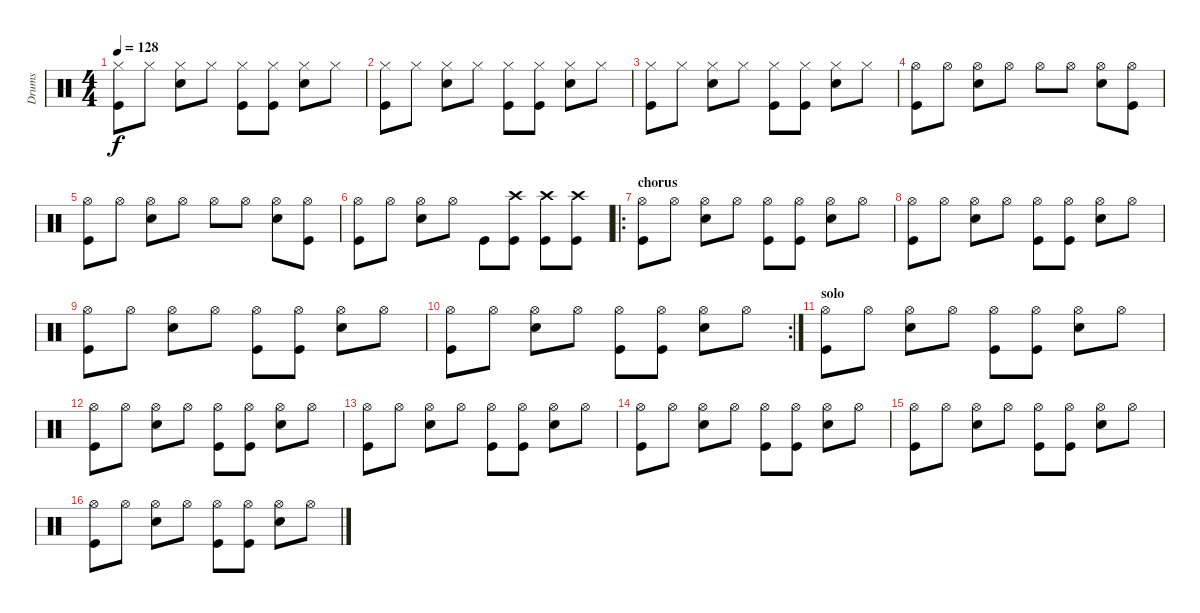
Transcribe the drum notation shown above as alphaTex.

\track ("Drums" "Drums") {instrument percussion}
\staff {score}
\articulation defaults
\ts (4 4)
\tempo 128
\clef neutral
\ks c
("Hi-Hat (closed)" "Kick (hit)").8{dy f} "Hi-Hat (closed)".8 ("Hi-Hat (closed)" "Electric Snare (hit)").8 "Hi-Hat (closed)".8 ("Hi-Hat (closed)" "Kick (hit)").8 ("Hi-Hat (closed)" "Kick (hit)").8 ("Hi-Hat (closed)" "Electric Snare (hit)").8 "Hi-Hat (closed)".8 |
("Hi-Hat (closed)" "Kick (hit)").8 "Hi-Hat (closed)".8 ("Hi-Hat (closed)" "Electric Snare (hit)").8 "Hi-Hat (closed)".8 ("Hi-Hat (closed)" "Kick (hit)").8 ("Hi-Hat (closed)" "Kick (hit)").8 ("Hi-Hat (closed)" "Electric Snare (hit)").8 "Hi-Hat (closed)".8 |
("Hi-Hat (closed)" "Kick (hit)").8 "Hi-Hat (closed)".8 ("Hi-Hat (closed)" "Electric Snare (hit)").8 "Hi-Hat (closed)".8 ("Hi-Hat (closed)" "Kick (hit)").8 ("Hi-Hat (closed)" "Kick (hit)").8 ("Hi-Hat (closed)" "Electric Snare (hit)").8 "Hi-Hat (closed)".8 |
("Hi-Hat (open)" "Kick (hit)").8 "Hi-Hat (open)".8 ("Hi-Hat (open)" "Electric Snare (hit)").8 "Hi-Hat (open)".8 "Hi-Hat (open)".8 "Hi-Hat (open)".8 ("Hi-Hat (open)" "Electric Snare (hit)").8 ("Hi-Hat (open)" "Kick (hit)").8 |
("Hi-Hat (open)" "Kick (hit)").8 "Hi-Hat (open)".8 ("Hi-Hat (open)" "Electric Snare (hit)").8 "Hi-Hat (open)".8 "Hi-Hat (open)".8 "Hi-Hat (open)".8 ("Hi-Hat (open)" "Electric Snare (hit)").8 ("Hi-Hat (open)" "Kick (hit)").8 |
("Hi-Hat (open)" "Kick (hit)").8 "Hi-Hat (open)".8 ("Hi-Hat (open)" "Electric Snare (hit)").8 "Hi-Hat (open)".8 "Kick (hit)".8 ("Crash high (hit)" "Kick (hit)").8 ("Crash high (hit)" "Kick (hit)").8 ("Crash high (hit)" "Kick (hit)").8 |
\ro
\section ("" "chorus")
("Hi-Hat (open)" "Kick (hit)").8 "Hi-Hat (open)".8 ("Hi-Hat (open)" "Electric Snare (hit)").8 "Hi-Hat (open)".8 ("Hi-Hat (open)" "Kick (hit)").8 ("Hi-Hat (open)" "Kick (hit)").8 ("Hi-Hat (open)" "Electric Snare (hit)").8 "Hi-Hat (open)".8 |
("Hi-Hat (open)" "Kick (hit)").8 "Hi-Hat (open)".8 ("Hi-Hat (open)" "Electric Snare (hit)").8 "Hi-Hat (open)".8 ("Hi-Hat (open)" "Kick (hit)").8 ("Hi-Hat (open)" "Kick (hit)").8 ("Hi-Hat (open)" "Electric Snare (hit)").8 "Hi-Hat (open)".8 |
("Hi-Hat (open)" "Kick (hit)").8 "Hi-Hat (open)".8 ("Hi-Hat (open)" "Electric Snare (hit)").8 "Hi-Hat (open)".8 ("Hi-Hat (open)" "Kick (hit)").8 ("Hi-Hat (open)" "Kick (hit)").8 ("Hi-Hat (open)" "Electric Snare (hit)").8 "Hi-Hat (open)".8 |
\rc 2
("Hi-Hat (open)" "Kick (hit)").8 "Hi-Hat (open)".8 ("Hi-Hat (open)" "Electric Snare (hit)").8 "Hi-Hat (open)".8 ("Hi-Hat (open)" "Kick (hit)").8 ("Hi-Hat (open)" "Kick (hit)").8 ("Hi-Hat (open)" "Electric Snare (hit)").8 "Hi-Hat (open)".8 |
\section ("" "solo")
("Hi-Hat (open)" "Kick (hit)").8 "Hi-Hat (open)".8 ("Hi-Hat (open)" "Electric Snare (hit)").8 "Hi-Hat (open)".8 ("Hi-Hat (open)" "Kick (hit)").8 ("Hi-Hat (open)" "Kick (hit)").8 ("Hi-Hat (open)" "Electric Snare (hit)").8 "Hi-Hat (open)".8 |
("Hi-Hat (open)" "Kick (hit)").8 "Hi-Hat (open)".8 ("Hi-Hat (open)" "Electric Snare (hit)").8 "Hi-Hat (open)".8 ("Hi-Hat (open)" "Kick (hit)").8 ("Hi-Hat (open)" "Kick (hit)").8 ("Hi-Hat (open)" "Electric Snare (hit)").8 "Hi-Hat (open)".8 |
("Hi-Hat (open)" "Kick (hit)").8 "Hi-Hat (open)".8 ("Hi-Hat (open)" "Electric Snare (hit)").8 "Hi-Hat (open)".8 ("Hi-Hat (open)" "Kick (hit)").8 ("Hi-Hat (open)" "Kick (hit)").8 ("Hi-Hat (open)" "Electric Snare (hit)").8 "Hi-Hat (open)".8 |
("Hi-Hat (open)" "Kick (hit)").8 "Hi-Hat (open)".8 ("Hi-Hat (open)" "Electric Snare (hit)").8 "Hi-Hat (open)".8 ("Hi-Hat (open)" "Kick (hit)").8 ("Hi-Hat (open)" "Kick (hit)").8 ("Hi-Hat (open)" "Electric Snare (hit)").8 "Hi-Hat (open)".8 |
("Hi-Hat (open)" "Kick (hit)").8 "Hi-Hat (open)".8 ("Hi-Hat (open)" "Electric Snare (hit)").8 "Hi-Hat (open)".8 ("Hi-Hat (open)" "Kick (hit)").8 ("Hi-Hat (open)" "Kick (hit)").8 ("Hi-Hat (open)" "Electric Snare (hit)").8 "Hi-Hat (open)".8 |
("Hi-Hat (open)" "Kick (hit)").8 "Hi-Hat (open)".8 ("Hi-Hat (open)" "Electric Snare (hit)").8 "Hi-Hat (open)".8 ("Hi-Hat (open)" "Kick (hit)").8 ("Hi-Hat (open)" "Kick (hit)").8 ("Hi-Hat (open)" "Electric Snare (hit)").8 "Hi-Hat (open)".8
